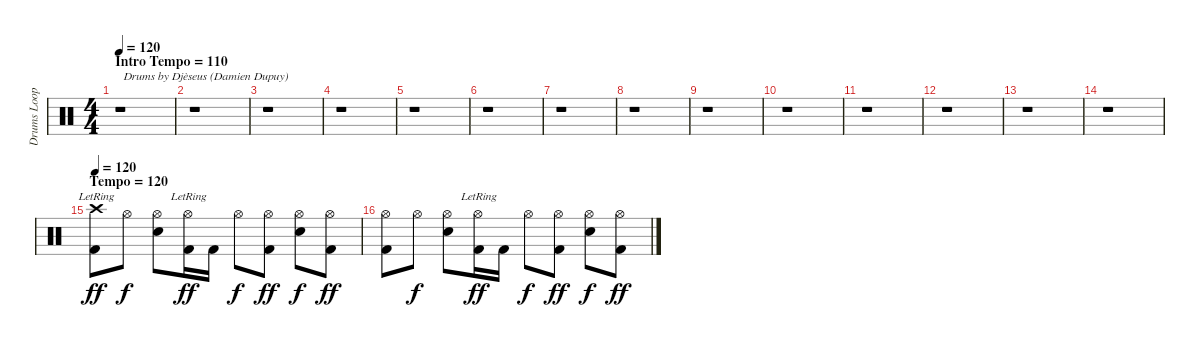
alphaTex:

\track ("Drums Looping" "Drums Loop") {instrument percussion}
\staff {score}
\articulation defaults
\ts (4 4)
\section ("" "Intro Tempo = 110")
\tempo 120
\tempo 110
\tempo 120
\clef neutral
\ks c
r.1{txt " Drums by Djèseus (Damien Dupuy)" dy ff} |
r.1 |
r.1 |
r.1 |
r.1 |
r.1 |
r.1 |
r.1 |
r.1 |
r.1 |
r.1 |
r.1 |
r.1 |
r.1 |
\section ("" "Tempo = 120")
\tempo 120
("Crash high (hit)"{lr} "Kick (hit) 2").8 "Hi-Hat (open)".8{dy f} ("Hi-Hat (open)" "Snare (hit) 2").8 ("Hi-Hat (open)"{lr} "Kick (hit) 2").16{dy ff} "Kick (hit) 2".16 "Hi-Hat (open)".8{dy f} ("Hi-Hat (open)" "Kick (hit) 2").8{dy ff} ("Hi-Hat (open)" "Snare (hit) 2").8{dy f} ("Hi-Hat (open)" "Kick (hit) 2").8{dy ff} |
("Hi-Hat (open)" "Kick (hit) 2").8 "Hi-Hat (open)".8{dy f} ("Hi-Hat (open)" "Snare (hit) 2").8 ("Hi-Hat (open)"{lr} "Kick (hit) 2").16{dy ff} "Kick (hit) 2".16 "Hi-Hat (open)".8{dy f} ("Hi-Hat (open)" "Kick (hit) 2").8{dy ff} ("Hi-Hat (open)" "Snare (hit) 2").8{dy f} ("Hi-Hat (open)" "Kick (hit) 2").8{dy ff}
